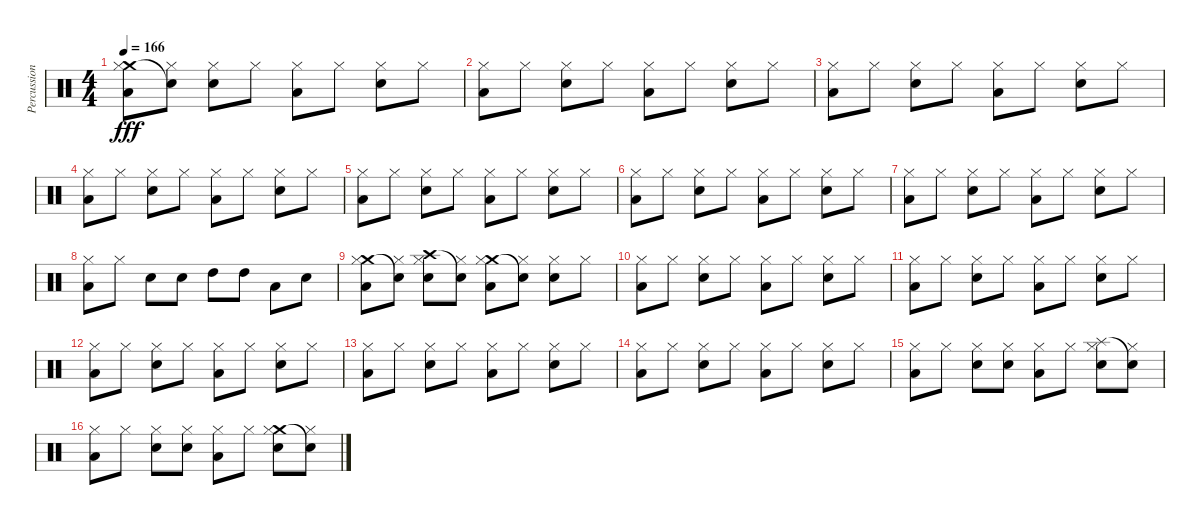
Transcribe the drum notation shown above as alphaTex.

\track ("Percussions" "Percussion") {instrument percussion}
\staff {score}
\articulation defaults
\ts (4 4)
\tempo 166
\clef neutral
\ks c
("Crash medium (hit)" "Low Tom (hit)" "Hi-Hat (closed)").8{dy fff} ("Snare (hit)"{t} "Hi-Hat (closed)").8 ("Snare (hit) 2" "Hi-Hat (closed)").8 "Hi-Hat (closed)".8 ("Low Tom (hit)" "Hi-Hat (closed)").8 "Hi-Hat (closed)".8 ("Snare (hit) 2" "Hi-Hat (closed)").8 "Hi-Hat (closed)".8 |
("Low Tom (hit)" "Hi-Hat (closed)").8 "Hi-Hat (closed)".8 ("Snare (hit) 2" "Hi-Hat (closed)").8 "Hi-Hat (closed)".8 ("Low Tom (hit)" "Hi-Hat (closed)").8 "Hi-Hat (closed)".8 ("Snare (hit) 2" "Hi-Hat (closed)").8 "Hi-Hat (closed)".8 |
("Low Tom (hit)" "Hi-Hat (closed)").8 "Hi-Hat (closed)".8 ("Snare (hit) 2" "Hi-Hat (closed)").8 "Hi-Hat (closed)".8 ("Low Tom (hit)" "Hi-Hat (closed)").8 "Hi-Hat (closed)".8 ("Snare (hit) 2" "Hi-Hat (closed)").8 "Hi-Hat (closed)".8 |
("Low Tom (hit)" "Hi-Hat (closed)").8 "Hi-Hat (closed)".8 ("Snare (hit) 2" "Hi-Hat (closed)").8 "Hi-Hat (closed)".8 ("Low Tom (hit)" "Hi-Hat (closed)").8 "Hi-Hat (closed)".8 ("Snare (hit) 2" "Hi-Hat (closed)").8 "Hi-Hat (closed)".8 |
("Low Tom (hit)" "Hi-Hat (closed)").8 "Hi-Hat (closed)".8 ("Snare (hit) 2" "Hi-Hat (closed)").8 "Hi-Hat (closed)".8 ("Low Tom (hit)" "Hi-Hat (closed)").8 "Hi-Hat (closed)".8 ("Snare (hit) 2" "Hi-Hat (closed)").8 "Hi-Hat (closed)".8 |
("Low Tom (hit)" "Hi-Hat (closed)").8 "Hi-Hat (closed)".8 ("Snare (hit) 2" "Hi-Hat (closed)").8 "Hi-Hat (closed)".8 ("Low Tom (hit)" "Hi-Hat (closed)").8 "Hi-Hat (closed)".8 ("Snare (hit) 2" "Hi-Hat (closed)").8 "Hi-Hat (closed)".8 |
("Low Tom (hit)" "Hi-Hat (closed)").8 "Hi-Hat (closed)".8 ("Snare (hit) 2" "Hi-Hat (closed)").8 "Hi-Hat (closed)".8 ("Low Tom (hit)" "Hi-Hat (closed)").8 "Hi-Hat (closed)".8 ("Snare (hit) 2" "Hi-Hat (closed)").8 "Hi-Hat (closed)".8 |
("Low Tom (hit)" "Hi-Hat (closed)").8 "Hi-Hat (closed)".8 "Snare (hit) 2".8 "Snare (hit) 2".8 "High Tom (hit)".8 "High Tom (hit)".8 "Low Tom (hit)".8 "Snare (hit) 2".8 |
("Crash medium (hit)" "Low Tom (hit)" "Hi-Hat (closed)").8 ("Snare (hit)"{t} "Hi-Hat (closed)").8 ("Crash high (hit)" "Snare (hit) 2" "Hi-Hat (closed)").8 ("Snare (hit)"{t} "Hi-Hat (closed)").8 ("Crash medium (hit)" "Low Tom (hit)" "Hi-Hat (closed)").8 ("Snare (hit)"{t} "Hi-Hat (closed)").8 ("Snare (hit) 2" "Hi-Hat (closed)").8 "Hi-Hat (closed)".8 |
("Low Tom (hit)" "Hi-Hat (closed)").8 "Hi-Hat (closed)".8 ("Snare (hit) 2" "Hi-Hat (closed)").8 "Hi-Hat (closed)".8 ("Low Tom (hit)" "Hi-Hat (closed)").8 "Hi-Hat (closed)".8 ("Snare (hit) 2" "Hi-Hat (closed)").8 "Hi-Hat (closed)".8 |
("Low Tom (hit)" "Hi-Hat (closed)").8 "Hi-Hat (closed)".8 ("Snare (hit) 2" "Hi-Hat (closed)").8 "Hi-Hat (closed)".8 ("Low Tom (hit)" "Hi-Hat (closed)").8 "Hi-Hat (closed)".8 ("Snare (hit) 2" "Hi-Hat (closed)").8 "Hi-Hat (closed)".8 |
("Low Tom (hit)" "Hi-Hat (closed)").8 "Hi-Hat (closed)".8 ("Snare (hit) 2" "Hi-Hat (closed)").8 "Hi-Hat (closed)".8 ("Low Tom (hit)" "Hi-Hat (closed)").8 "Hi-Hat (closed)".8 ("Snare (hit) 2" "Hi-Hat (closed)").8 "Hi-Hat (closed)".8 |
("Low Tom (hit)" "Hi-Hat (closed)").8 "Hi-Hat (closed)".8 ("Snare (hit) 2" "Hi-Hat (closed)").8 "Hi-Hat (closed)".8 ("Low Tom (hit)" "Hi-Hat (closed)").8 "Hi-Hat (closed)".8 ("Snare (hit) 2" "Hi-Hat (closed)").8 "Hi-Hat (closed)".8 |
("Low Tom (hit)" "Hi-Hat (closed)").8 "Hi-Hat (closed)".8 ("Snare (hit) 2" "Hi-Hat (closed)").8 "Hi-Hat (closed)".8 ("Low Tom (hit)" "Hi-Hat (closed)").8 "Hi-Hat (closed)".8 ("Snare (hit) 2" "Hi-Hat (closed)").8 "Hi-Hat (closed)".8 |
("Low Tom (hit)" "Hi-Hat (closed)").8 "Hi-Hat (closed)".8 ("Snare (hit) 2" "Hi-Hat (closed)").8 ("Snare (hit) 2" "Hi-Hat (closed)").8 ("Low Tom (hit)" "Hi-Hat (closed)").8 "Hi-Hat (closed)".8 ("Splash (hit)" "Snare (hit) 2" "Hi-Hat (closed)").8 ("Snare (hit)"{t} "Hi-Hat (closed)").8 |
("Low Tom (hit)" "Hi-Hat (closed)").8 "Hi-Hat (closed)".8 ("Snare (hit) 2" "Hi-Hat (closed)").8 ("Snare (hit) 2" "Hi-Hat (closed)").8 ("Low Tom (hit)" "Hi-Hat (closed)").8 "Hi-Hat (closed)".8 ("Crash medium (hit)" "Snare (hit) 2" "Hi-Hat (closed)").8 ("Snare (hit)"{t} "Hi-Hat (closed)").8
